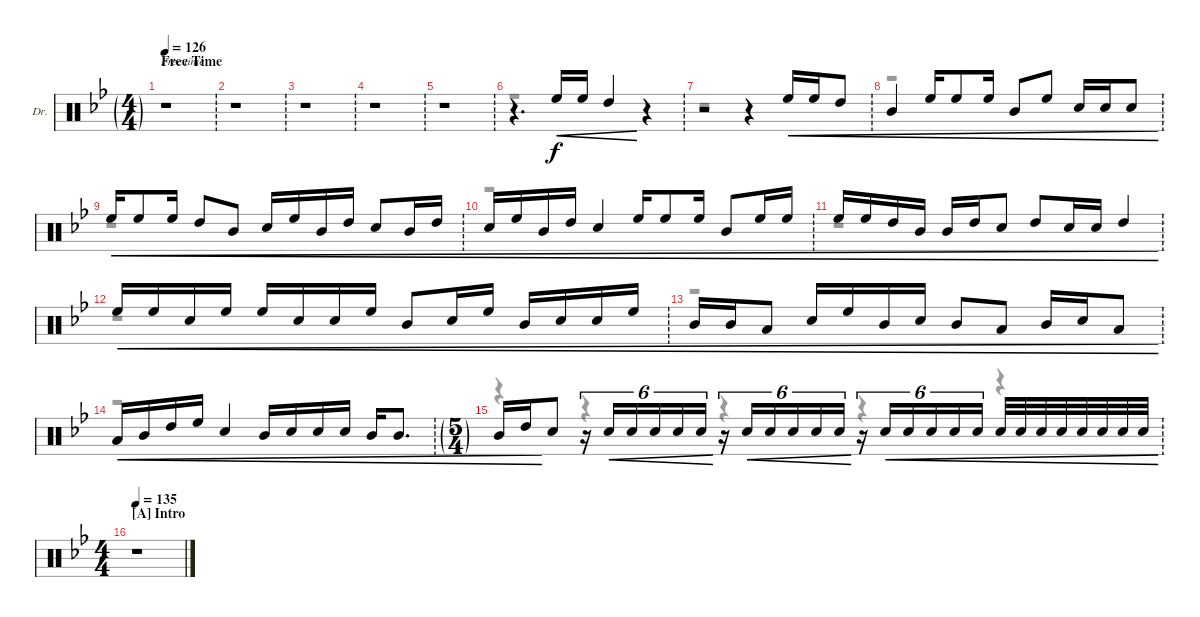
\defaultSystemsLayout 4
\bracketExtendMode groupsimilarinstruments
\firstSystemTrackNameOrientation horizontal
\otherSystemsTrackNameOrientation horizontal
\track ("Drums" "Dr.") {instrument percussion}
\staff {score}
\articulation defaults
\voice
\ts (4 4)
\ft
\section ("" "Free Time")
\tempo 126
\clef neutral
\ks bb
r.1{dy f} |
\ft
r.1 |
\ft
r.1 |
\ft
r.1 |
\ft
r.1 |
\ft
r.4{d} "High Floor Tom (hit)".16{cre} "High Floor Tom (hit)".16{cre} "High Tom (hit)".4{cre} r.4 |
\ft
r.2 r.4 "High Floor Tom (hit)".16{cre} "High Floor Tom (hit)".16{cre} "High Tom (hit)".8{cre} |
\ft "Mid Tom (hit)".4{cre} "High Floor Tom (hit)".16{cre} "High Floor Tom (hit)".8{cre} "High Floor Tom (hit)".16{cre} "Mid Tom (hit)".8{cre} "High Floor Tom (hit)".8{cre} "Snare (hit) 2".16{cre} "Snare (hit) 2".16{cre} "Snare (hit) 2".8{cre}
|
\ft "High Floor Tom (hit)".16{cre} "High Floor Tom (hit)".8{cre} "High Floor Tom (hit)".16{cre} "High Tom (hit)".8{cre} "Mid Tom (hit)".8{cre} "Snare (hit) 2".16{cre} "High Floor Tom (hit)".16{cre} "Mid Tom (hit)".16{cre} "High Tom (hit)".16{cre} "Snare (hit) 2".8{cre} "Mid Tom (hit)".16{cre} "High Tom (hit)".16{cre}
|
\ft "Snare (hit) 2".16{cre} "High Floor Tom (hit)".16{cre} "Mid Tom (hit)".16{cre} "High Tom (hit)".16{cre} "Snare (hit) 2".4{cre} "High Floor Tom (hit)".16{cre} "High Floor Tom (hit)".8{cre} "High Floor Tom (hit)".16{cre} "Mid Tom (hit)".8{cre} "High Floor Tom (hit)".16{cre} "High Floor Tom (hit)".16{cre}
|
\ft "High Floor Tom (hit)".16{cre} "High Floor Tom (hit)".16{cre} "High Tom (hit)".16{cre} "Mid Tom (hit)".16{cre} "Mid Tom (hit)".16{cre} "High Tom (hit)".16{cre} "Snare (hit) 2".8{cre} "High Tom (hit)".8{cre} "Snare (hit) 2".16{cre} "Snare (hit) 2".16{cre} "High Tom (hit)".4{cre}
|
\ft "High Floor Tom (hit)".16{cre} "High Floor Tom (hit)".16{cre} "Snare (hit) 2".16{cre} "High Floor Tom (hit)".16{cre} "High Floor Tom (hit)".16{cre} "Snare (hit) 2".16{cre} "Snare (hit) 2".16{cre} "High Floor Tom (hit)".16{cre} "Mid Tom (hit)".8{cre} "Snare (hit) 2".16{cre} "High Floor Tom (hit)".16{cre} "Mid Tom (hit)".16{cre} "Snare (hit) 2".16{cre} "Snare (hit) 2".16{cre} "High Floor Tom (hit)".16{cre}
|
\ft "Mid Tom (hit)".16{cre} "Mid Tom (hit)".16{cre} "Low Tom (hit)".8{cre} "Snare (hit) 2".16{cre} "High Floor Tom (hit)".16{cre} "Mid Tom (hit)".16{cre} "Snare (hit) 2".16{cre} "Mid Tom (hit)".8{cre} "Low Tom (hit)".8{cre} "Mid Tom (hit)".16{cre} "Snare (hit) 2".16{cre} "Low Tom (hit)".8{cre}
|
\ft "Low Tom (hit)".16{cre} "Mid Tom (hit)".16{cre} "High Tom (hit)".16{cre} "High Floor Tom (hit)".16{cre} "Snare (hit) 2".4{cre} "Mid Tom (hit)".16{cre} "Snare (hit) 2".16{cre} "Snare (hit) 2".16{cre} "Snare (hit) 2".16{cre} "Mid Tom (hit)".16{cre} "Mid Tom (hit)".8{d cre}
|
\ts (5 4)
\ft "Mid Tom (hit)".16{cre} "High Tom (hit)".16{cre} "Snare (hit) 2".8
r.16{tu (6 4)} "Snare (hit) 2".16{tu (6 4) cre} "Snare (hit) 2".16{tu (6 4) cre} "Snare (hit) 2".16{tu (6 4) cre} "Snare (hit) 2".16{tu (6 4) cre} "Snare (hit) 2".16{tu (6 4) cre} r.16{tu (6 4)} "Snare (hit) 2".16{tu (6 4) cre} "Snare (hit) 2".16{tu (6 4) cre} "Snare (hit) 2".16{tu (6 4) cre} "Snare (hit) 2".16{tu (6 4) cre} "Snare (hit) 2".16{tu (6 4) cre} r.16{tu (6 4)} "Snare (hit) 2".16{tu (6 4) cre} "Snare (hit) 2".16{tu (6 4) cre} "Snare (hit) 2".16{tu (6 4) cre} "Snare (hit) 2".16{tu (6 4) cre} "Snare (hit) 2".16{tu (6 4) cre} "Snare (hit) 2".32{cre} "Snare (hit) 2".32{cre} "Snare (hit) 2".32{cre} "Snare (hit) 2".32{cre} "Snare (hit) 2".32{cre} "Snare (hit) 2".32{cre} "Snare (hit) 2".32{cre} "Snare (hit) 2".32{cre} |
\ts (4 4)
\section ("A" "Intro")
\tempo 135
r.1
\voice
\clef neutral
\ottava regular
\simile none
\ks bb
|
|
|
|
|
r.1 |
r.1 |
r.1 |
r.1 |
r.1 |
r.1 |
r.1 |
r.1 |
r.1 |
r.4 r.4 r.4 r.4 r.4 |
